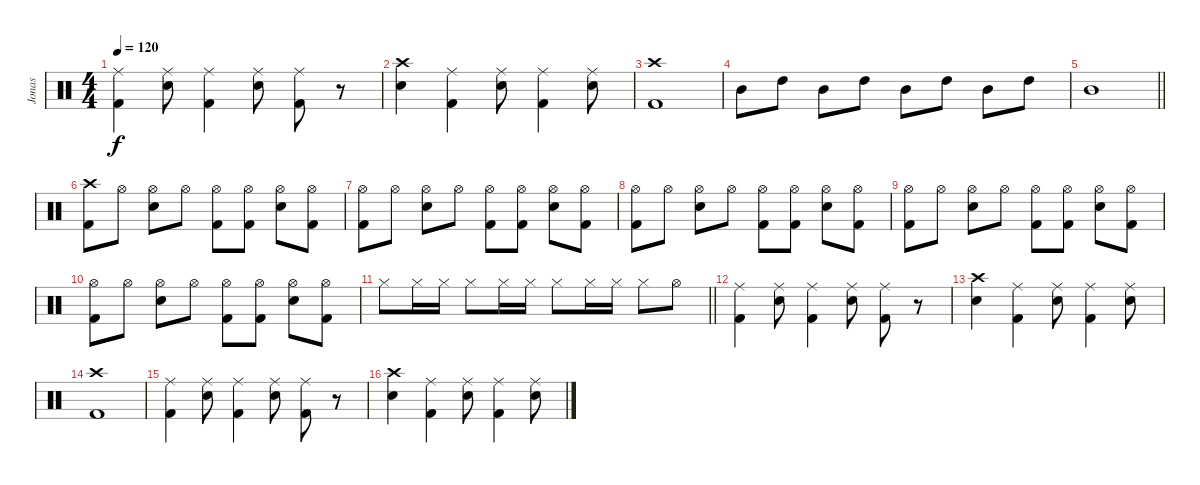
\track ("Jonas" "Jonas") {instrument percussion}
\staff {score}
\articulation defaults
\ts (4 4)
\tempo 120
\clef neutral
\ks c
("Ride (middle)" "Kick (hit) 2").4{dy f} ("Ride (middle)" "Snare (hit) 2").8 ("Ride (middle)" "Kick (hit) 2").4 ("Ride (middle)" "Snare (hit) 2").8 ("Ride (middle)" "Kick (hit) 2").8 r.8 |
("Crash high (hit)" "Snare (hit) 2").4 ("Ride (middle)" "Kick (hit) 2").4 ("Ride (middle)" "Snare (hit) 2").8 ("Ride (middle)" "Kick (hit) 2").4 ("Ride (middle)" "Snare (hit) 2").8 |
("Crash high (hit)" "Kick (hit) 2").1 |
"Mid Tom (hit)".8 "High Tom (hit)".8 "Mid Tom (hit)".8 "High Tom (hit)".8 "Mid Tom (hit)".8 "High Tom (hit)".8 "Mid Tom (hit)".8 "High Tom (hit)".8 |
\barLineRight lightlight "Mid Tom (hit)".1
|
("Crash high (hit)" "Kick (hit) 2").8 "Hi-Hat (open)".8 ("Hi-Hat (open)" "Snare (hit) 2").8 "Hi-Hat (open)".8 ("Hi-Hat (open)" "Kick (hit) 2").8 ("Hi-Hat (open)" "Kick (hit) 2").8 ("Hi-Hat (open)" "Snare (hit) 2").8 ("Hi-Hat (open)" "Kick (hit) 2").8 |
("Hi-Hat (open)" "Kick (hit) 2").8 "Hi-Hat (open)".8 ("Hi-Hat (open)" "Snare (hit) 2").8 "Hi-Hat (open)".8 ("Hi-Hat (open)" "Kick (hit) 2").8 ("Hi-Hat (open)" "Kick (hit) 2").8 ("Hi-Hat (open)" "Snare (hit) 2").8 ("Hi-Hat (open)" "Kick (hit) 2").8 |
("Hi-Hat (open)" "Kick (hit) 2").8 "Hi-Hat (open)".8 ("Hi-Hat (open)" "Snare (hit) 2").8 "Hi-Hat (open)".8 ("Hi-Hat (open)" "Kick (hit) 2").8 ("Hi-Hat (open)" "Kick (hit) 2").8 ("Hi-Hat (open)" "Snare (hit) 2").8 ("Hi-Hat (open)" "Kick (hit) 2").8 |
("Hi-Hat (open)" "Kick (hit) 2").8 "Hi-Hat (open)".8 ("Hi-Hat (open)" "Snare (hit) 2").8 "Hi-Hat (open)".8 ("Hi-Hat (open)" "Kick (hit) 2").8 ("Hi-Hat (open)" "Kick (hit) 2").8 ("Hi-Hat (open)" "Snare (hit) 2").8 ("Hi-Hat (open)" "Kick (hit) 2").8 |
("Hi-Hat (open)" "Kick (hit) 2").8 "Hi-Hat (open)".8 ("Hi-Hat (open)" "Snare (hit) 2").8 "Hi-Hat (open)".8 ("Hi-Hat (open)" "Kick (hit) 2").8 ("Hi-Hat (open)" "Kick (hit) 2").8 ("Hi-Hat (open)" "Snare (hit) 2").8 ("Hi-Hat (open)" "Kick (hit) 2").8 |
\barLineRight lightlight "Hi-Hat (closed)".8 "Hi-Hat (closed)".16 "Hi-Hat (closed)".16 "Hi-Hat (closed)".8 "Hi-Hat (closed)".16 "Hi-Hat (closed)".16 "Hi-Hat (closed)".8 "Hi-Hat (closed)".16 "Hi-Hat (closed)".16 "Hi-Hat (closed)".8 "Hi-Hat (open)".8
|
("Ride (middle)" "Kick (hit) 2").4 ("Ride (middle)" "Snare (hit) 2").8 ("Ride (middle)" "Kick (hit) 2").4 ("Ride (middle)" "Snare (hit) 2").8 ("Ride (middle)" "Kick (hit) 2").8 r.8 |
("Crash high (hit)" "Snare (hit) 2").4 ("Ride (middle)" "Kick (hit) 2").4 ("Ride (middle)" "Snare (hit) 2").8 ("Ride (middle)" "Kick (hit) 2").4 ("Ride (middle)" "Snare (hit) 2").8 |
("Crash high (hit)" "Kick (hit) 2").1 |
("Ride (middle)" "Kick (hit) 2").4 ("Ride (middle)" "Snare (hit) 2").8 ("Ride (middle)" "Kick (hit) 2").4 ("Ride (middle)" "Snare (hit) 2").8 ("Ride (middle)" "Kick (hit) 2").8 r.8 |
("Crash high (hit)" "Snare (hit) 2").4 ("Ride (middle)" "Kick (hit) 2").4 ("Ride (middle)" "Snare (hit) 2").8 ("Ride (middle)" "Kick (hit) 2").4 ("Ride (middle)" "Snare (hit) 2").8
